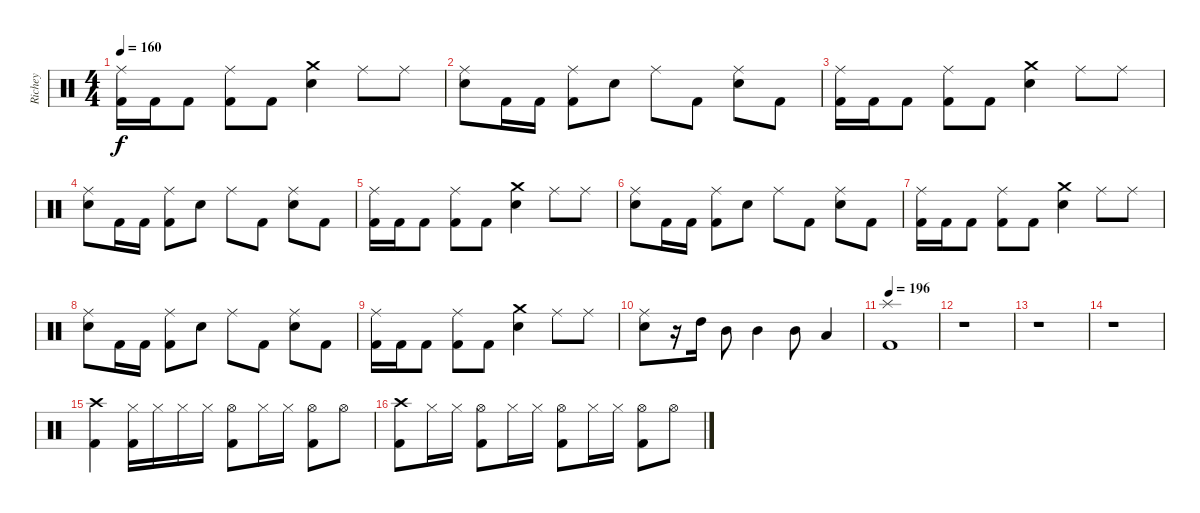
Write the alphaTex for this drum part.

\track ("Richey" "Richey") {instrument percussion}
\staff {score}
\articulation defaults
\ts (4 4)
\tempo 160
\clef neutral
\ks c
("Ride (middle)" "Kick (hit) 2").16{dy f} "Kick (hit) 2".16 "Kick (hit) 2".8 ("Ride (middle)" "Kick (hit) 2").8 "Kick (hit) 2".8 ("Crash medium (hit)" "Snare (hit) 2").4 "Ride (middle)".8 "Ride (middle)".8 |
("Ride (middle)" "Snare (hit) 2").8 "Kick (hit) 2".16 "Kick (hit) 2".16 ("Ride (middle)" "Kick (hit) 2").8 "Snare (hit) 2".8 "Ride (middle)".8 "Kick (hit) 2".8 ("Ride (middle)" "Snare (hit) 2").8 "Kick (hit) 2".8 |
("Ride (middle)" "Kick (hit) 2").16 "Kick (hit) 2".16 "Kick (hit) 2".8 ("Ride (middle)" "Kick (hit) 2").8 "Kick (hit) 2".8 ("Crash medium (hit)" "Snare (hit) 2").4 "Ride (middle)".8 "Ride (middle)".8 |
("Ride (middle)" "Snare (hit) 2").8 "Kick (hit) 2".16 "Kick (hit) 2".16 ("Ride (middle)" "Kick (hit) 2").8 "Snare (hit) 2".8 "Ride (middle)".8 "Kick (hit) 2".8 ("Ride (middle)" "Snare (hit) 2").8 "Kick (hit) 2".8 |
("Ride (middle)" "Kick (hit) 2").16 "Kick (hit) 2".16 "Kick (hit) 2".8 ("Ride (middle)" "Kick (hit) 2").8 "Kick (hit) 2".8 ("Crash medium (hit)" "Snare (hit) 2").4 "Ride (middle)".8 "Ride (middle)".8 |
("Ride (middle)" "Snare (hit) 2").8 "Kick (hit) 2".16 "Kick (hit) 2".16 ("Ride (middle)" "Kick (hit) 2").8 "Snare (hit) 2".8 "Ride (middle)".8 "Kick (hit) 2".8 ("Ride (middle)" "Snare (hit) 2").8 "Kick (hit) 2".8 |
("Ride (middle)" "Kick (hit) 2").16 "Kick (hit) 2".16 "Kick (hit) 2".8 ("Ride (middle)" "Kick (hit) 2").8 "Kick (hit) 2".8 ("Crash medium (hit)" "Snare (hit) 2").4 "Ride (middle)".8 "Ride (middle)".8 |
("Ride (middle)" "Snare (hit) 2").8 "Kick (hit) 2".16 "Kick (hit) 2".16 ("Ride (middle)" "Kick (hit) 2").8 "Snare (hit) 2".8 "Ride (middle)".8 "Kick (hit) 2".8 ("Ride (middle)" "Snare (hit) 2").8 "Kick (hit) 2".8 |
("Ride (middle)" "Kick (hit) 2").16 "Kick (hit) 2".16 "Kick (hit) 2".8 ("Ride (middle)" "Kick (hit) 2").8 "Kick (hit) 2".8 ("Crash medium (hit)" "Snare (hit) 2").4 "Ride (middle)".8 "Ride (middle)".8 |
("Ride (middle)" "Snare (hit) 2").8 r.16 "High Tom (hit)".16 "Mid Tom (hit)".8 "Mid Tom (hit)".4 "Mid Tom (hit)".8 "Low Tom (hit)".4 |
\tempo 196
("Splash (hit)" "Kick (hit) 2").1 |
r.1 |
r.1 |
r.1 |
("Crash high (hit)" "Kick (hit) 2").4 ("Hi-Hat (closed)" "Kick (hit) 2").16 "Hi-Hat (closed)".16 "Hi-Hat (closed)".16 "Hi-Hat (closed)".16 ("Hi-Hat (open)" "Kick (hit) 2").8 "Hi-Hat (closed)".16 "Hi-Hat (closed)".16 ("Hi-Hat (open)" "Kick (hit) 2").8 "Hi-Hat (open)".8 |
("Crash high (hit)" "Kick (hit) 2").8 "Hi-Hat (closed)".16 "Hi-Hat (closed)".16 ("Hi-Hat (open)" "Kick (hit) 2").8 "Hi-Hat (closed)".16 "Hi-Hat (closed)".16 ("Hi-Hat (open)" "Kick (hit) 2").8 "Hi-Hat (closed)".16 "Hi-Hat (closed)".16 ("Hi-Hat (open)" "Kick (hit) 2").8 "Hi-Hat (open)".8
